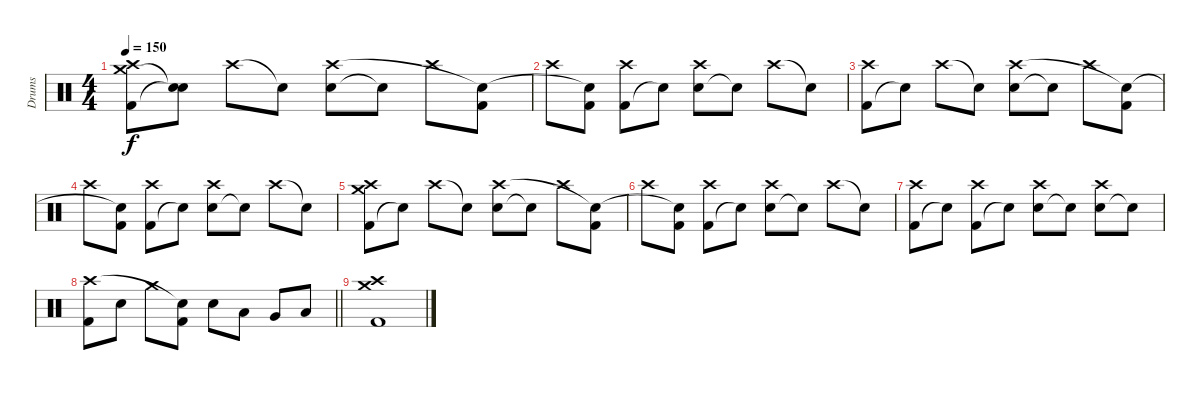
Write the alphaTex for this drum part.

\track ("Drums" "Drums") {instrument percussion}
\staff {score}
\articulation defaults
\ts (4 4)
\tempo 150
\clef neutral
\ks c
("Kick (hit) 2" "Crash medium (hit)" "Crash high (hit)").8{dy f} ("Snare (hit)"{t} "Snare (hit)"{t}).8 "Crash high (hit)".8 "Snare (hit)"{t}.8 ("Electric Snare (hit)" "Crash high (hit)").8 "Snare (hit)"{t}.8 "Crash high (hit)".8 ("Kick (hit) 2" "Snare (hit)"{t}).8 |
"Crash high (hit)".8 ("Kick (hit) 2" "Snare (hit)"{t}).8 ("Kick (hit) 2" "Crash high (hit)").8 "Snare (hit)"{t}.8 ("Electric Snare (hit)" "Crash high (hit)").8 "Snare (hit)"{t}.8 "Crash high (hit)".8 "Snare (hit)"{t}.8 |
("Kick (hit) 2" "Crash high (hit)").8 "Snare (hit)"{t}.8 "Crash high (hit)".8 "Snare (hit)"{t}.8 ("Electric Snare (hit)" "Crash high (hit)").8 "Snare (hit)"{t}.8 "Crash high (hit)".8 ("Kick (hit) 2" "Snare (hit)"{t}).8 |
"Crash high (hit)".8 ("Kick (hit) 2" "Snare (hit)"{t}).8 ("Kick (hit) 2" "Crash high (hit)").8 "Snare (hit)"{t}.8 ("Electric Snare (hit)" "Crash high (hit)").8 "Snare (hit)"{t}.8 "Crash high (hit)".8 "Snare (hit)"{t}.8 |
("Kick (hit) 2" "Crash medium (hit)" "Crash high (hit)").8 "Snare (hit)"{t}.8 "Crash high (hit)".8 "Snare (hit)"{t}.8 ("Electric Snare (hit)" "Crash high (hit)").8 "Snare (hit)"{t}.8 "Crash high (hit)".8 ("Kick (hit) 2" "Snare (hit)"{t}).8 |
"Crash high (hit)".8 ("Kick (hit) 2" "Snare (hit)"{t}).8 ("Kick (hit) 2" "Crash high (hit)").8 "Snare (hit)"{t}.8 ("Electric Snare (hit)" "Crash high (hit)").8 "Snare (hit)"{t}.8 "Crash high (hit)".8 "Snare (hit)"{t}.8 |
("Kick (hit) 2" "Crash high (hit)").8 "Snare (hit)"{t}.8 ("Kick (hit) 2" "Crash high (hit)").8 "Snare (hit)"{t}.8 ("Electric Snare (hit)" "Crash high (hit)").8 "Snare (hit)"{t}.8 ("Electric Snare (hit)" "Crash high (hit)").8 "Snare (hit)"{t}.8 |
\barLineRight lightlight
("Kick (hit) 2" "Crash high (hit)").8 "Electric Snare (hit)".8 "Crash medium (hit)".8 ("Kick (hit) 2" "Snare (hit)"{t}).8 "Electric Snare (hit)".8 "Low Tom (hit)".8 "Very Low Tom (hit)".8 "Low Floor Tom (hit)".8 |
("Kick (hit) 2" "Crash medium (hit)" "Crash high (hit)").1
